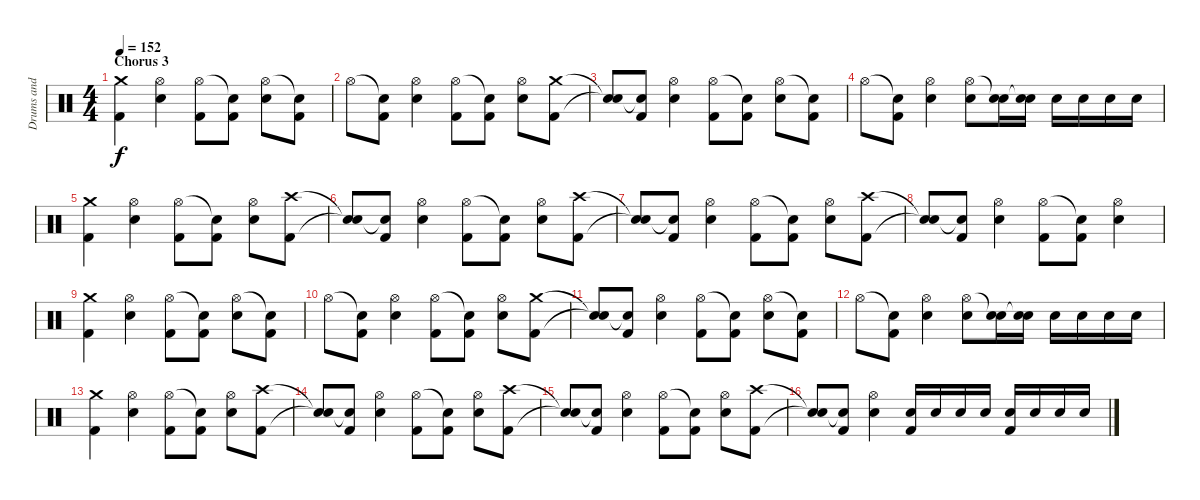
\track ("Drums and Percussion" "Drums and ") {instrument percussion}
\staff {score}
\articulation defaults
\ts (4 4)
\section ("" "Chorus 3")
\tempo 152
\clef neutral
\ks c
("Crash medium (hit)" "Kick (hit) 2").4{dy f} ("Hi-Hat (open)" "Snare (hit) 2").4 ("Hi-Hat (open)" "Kick (hit) 2").8 ("Snare (hit)"{t} "Kick (hit) 2").8 ("Hi-Hat (open)" "Snare (hit) 2").8 ("Snare (hit)"{t} "Kick (hit) 2").8 |
"Hi-Hat (open)".8 ("Snare (hit)"{t} "Kick (hit) 2").8 ("Hi-Hat (open)" "Snare (hit) 2").4 ("Hi-Hat (open)" "Kick (hit) 2").8 ("Snare (hit)"{t} "Kick (hit) 2").8 ("Hi-Hat (open)" "Snare (hit) 2").8 ("Crash medium (hit)" "Kick (hit) 2").8 |
("Snare (hit)"{t} "Snare (hit)"{t}).8 ("Snare (hit)"{t} "Kick (hit) 2").8 ("Hi-Hat (open)" "Snare (hit) 2").4 ("Hi-Hat (open)" "Kick (hit) 2").8 ("Snare (hit)"{t} "Kick (hit) 2").8 ("Hi-Hat (open)" "Snare (hit) 2").8 ("Snare (hit)"{t} "Kick (hit) 2").8 |
"Hi-Hat (open)".8 ("Snare (hit)"{t} "Kick (hit) 2").8 ("Hi-Hat (open)" "Snare (hit) 2").4 ("Hi-Hat (open)" "Snare (hit) 2").8 ("Snare (hit)"{t} "Snare (hit) 2").16 ("Snare (hit)"{t} "Snare (hit) 2").16 "Snare (hit) 2".16 "Snare (hit) 2".16 "Snare (hit) 2".16 "Snare (hit) 2".16 |
("Crash medium (hit)" "Kick (hit) 2").4 ("Hi-Hat (open)" "Snare (hit) 2").4 ("Hi-Hat (open)" "Kick (hit) 2").8 ("Snare (hit)"{t} "Kick (hit) 2").8 ("Hi-Hat (open)" "Snare (hit) 2").8 ("Crash high (hit)" "Kick (hit) 2").8 |
("Snare (hit)"{t} "Snare (hit)"{t}).8 ("Snare (hit)"{t} "Kick (hit) 2").8 ("Hi-Hat (open)" "Snare (hit) 2").4 ("Hi-Hat (open)" "Kick (hit) 2").8 ("Snare (hit)"{t} "Kick (hit) 2").8 ("Hi-Hat (open)" "Snare (hit) 2").8 ("Crash high (hit)" "Kick (hit) 2").8 |
("Snare (hit)"{t} "Snare (hit)"{t}).8 ("Snare (hit)"{t} "Kick (hit) 2").8 ("Hi-Hat (open)" "Snare (hit) 2").4 ("Hi-Hat (open)" "Kick (hit) 2").8 ("Snare (hit)"{t} "Kick (hit) 2").8 ("Hi-Hat (open)" "Snare (hit) 2").8 ("Crash high (hit)" "Kick (hit) 2").8 |
("Snare (hit)"{t} "Snare (hit)"{t}).8 ("Snare (hit)"{t} "Kick (hit) 2").8 ("Hi-Hat (open)" "Snare (hit) 2").4 ("Hi-Hat (open)" "Kick (hit) 2").8 ("Snare (hit)"{t} "Kick (hit) 2").8 ("Hi-Hat (open)" "Snare (hit) 2").4 |
("Crash medium (hit)" "Kick (hit) 2").4 ("Hi-Hat (open)" "Snare (hit) 2").4 ("Hi-Hat (open)" "Kick (hit) 2").8 ("Snare (hit)"{t} "Kick (hit) 2").8 ("Hi-Hat (open)" "Snare (hit) 2").8 ("Snare (hit)"{t} "Kick (hit) 2").8 |
"Hi-Hat (open)".8 ("Snare (hit)"{t} "Kick (hit) 2").8 ("Hi-Hat (open)" "Snare (hit) 2").4 ("Hi-Hat (open)" "Kick (hit) 2").8 ("Snare (hit)"{t} "Kick (hit) 2").8 ("Hi-Hat (open)" "Snare (hit) 2").8 ("Crash medium (hit)" "Kick (hit) 2").8 |
("Snare (hit)"{t} "Snare (hit)"{t}).8 ("Snare (hit)"{t} "Kick (hit) 2").8 ("Hi-Hat (open)" "Snare (hit) 2").4 ("Hi-Hat (open)" "Kick (hit) 2").8 ("Snare (hit)"{t} "Kick (hit) 2").8 ("Hi-Hat (open)" "Snare (hit) 2").8 ("Snare (hit)"{t} "Kick (hit) 2").8 |
"Hi-Hat (open)".8 ("Snare (hit)"{t} "Kick (hit) 2").8 ("Hi-Hat (open)" "Snare (hit) 2").4 ("Hi-Hat (open)" "Snare (hit) 2").8 ("Snare (hit)"{t} "Snare (hit) 2").16 ("Snare (hit)"{t} "Snare (hit) 2").16 "Snare (hit) 2".16 "Snare (hit) 2".16 "Snare (hit) 2".16 "Snare (hit) 2".16 |
("Crash medium (hit)" "Kick (hit) 2").4 ("Hi-Hat (open)" "Snare (hit) 2").4 ("Hi-Hat (open)" "Kick (hit) 2").8 ("Snare (hit)"{t} "Kick (hit) 2").8 ("Hi-Hat (open)" "Snare (hit) 2").8 ("Crash high (hit)" "Kick (hit) 2").8 |
("Snare (hit)"{t} "Snare (hit)"{t}).8 ("Snare (hit)"{t} "Kick (hit) 2").8 ("Hi-Hat (open)" "Snare (hit) 2").4 ("Hi-Hat (open)" "Kick (hit) 2").8 ("Snare (hit)"{t} "Kick (hit) 2").8 ("Hi-Hat (open)" "Snare (hit) 2").8 ("Crash high (hit)" "Kick (hit) 2").8 |
("Snare (hit)"{t} "Snare (hit)"{t}).8 ("Snare (hit)"{t} "Kick (hit) 2").8 ("Hi-Hat (open)" "Snare (hit) 2").4 ("Hi-Hat (open)" "Kick (hit) 2").8 ("Snare (hit)"{t} "Kick (hit) 2").8 ("Hi-Hat (open)" "Snare (hit) 2").8 ("Crash high (hit)" "Kick (hit) 2").8 |
("Snare (hit)"{t} "Snare (hit)"{t}).8 ("Snare (hit)"{t} "Kick (hit) 2").8 ("Hi-Hat (open)" "Snare (hit) 2").4 ("Snare (hit) 2" "Kick (hit) 2").16 "Snare (hit) 2".16 "Snare (hit) 2".16 "Snare (hit) 2".16 ("Snare (hit) 2" "Kick (hit) 2").16 "Snare (hit) 2".16 "Snare (hit) 2".16 "Snare (hit) 2".16
